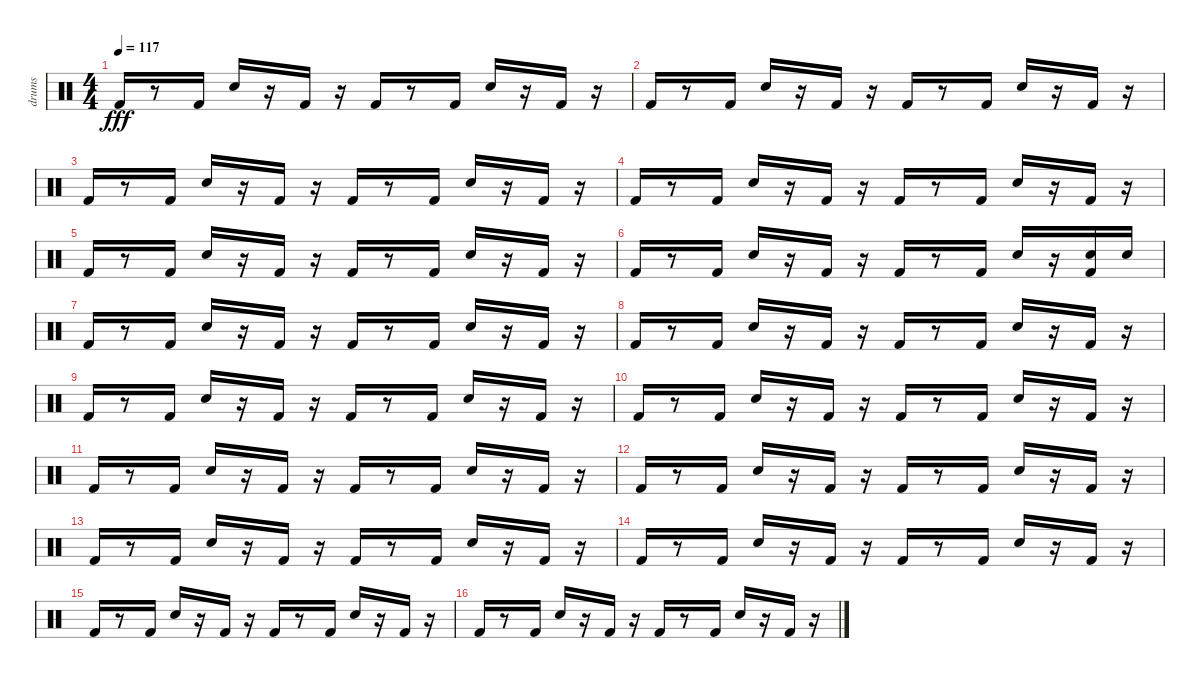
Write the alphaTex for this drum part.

\track ("drums" "drums") {instrument percussion}
\staff {score}
\articulation defaults
\ts (4 4)
\tempo 117
\clef neutral
\ks c "Kick (hit) 2".16{dy fff}
r.8 "Kick (hit) 2".16 "Snare (hit) 2".16 r.16 "Kick (hit) 2".16 r.16 "Kick (hit) 2".16 r.8 "Kick (hit) 2".16 "Snare (hit) 2".16 r.16 "Kick (hit) 2".16 r.16 |
"Kick (hit) 2".16 r.8 "Kick (hit) 2".16 "Snare (hit) 2".16 r.16 "Kick (hit) 2".16 r.16 "Kick (hit) 2".16 r.8 "Kick (hit) 2".16 "Snare (hit) 2".16 r.16 "Kick (hit) 2".16 r.16 |
"Kick (hit) 2".16 r.8 "Kick (hit) 2".16 "Snare (hit) 2".16 r.16 "Kick (hit) 2".16 r.16 "Kick (hit) 2".16 r.8 "Kick (hit) 2".16 "Snare (hit) 2".16 r.16 "Kick (hit) 2".16 r.16 |
"Kick (hit) 2".16 r.8 "Kick (hit) 2".16 "Snare (hit) 2".16 r.16 "Kick (hit) 2".16 r.16 "Kick (hit) 2".16 r.8 "Kick (hit) 2".16 "Snare (hit) 2".16 r.16 "Kick (hit) 2".16 r.16 |
"Kick (hit) 2".16 r.8 "Kick (hit) 2".16 "Snare (hit) 2".16 r.16 "Kick (hit) 2".16 r.16 "Kick (hit) 2".16 r.8 "Kick (hit) 2".16 "Snare (hit) 2".16 r.16 "Kick (hit) 2".16 r.16 |
"Kick (hit) 2".16 r.8 "Kick (hit) 2".16 "Snare (hit) 2".16 r.16 "Kick (hit) 2".16 r.16 "Kick (hit) 2".16 r.8 "Kick (hit) 2".16 "Snare (hit) 2".16 r.16 ("Kick (hit) 2" "Snare (hit) 2").16 "Snare (hit) 2".16 |
"Kick (hit) 2".16 r.8 "Kick (hit) 2".16 "Snare (hit) 2".16 r.16 "Kick (hit) 2".16 r.16 "Kick (hit) 2".16 r.8 "Kick (hit) 2".16 "Snare (hit) 2".16 r.16 "Kick (hit) 2".16 r.16 |
"Kick (hit) 2".16 r.8 "Kick (hit) 2".16 "Snare (hit) 2".16 r.16 "Kick (hit) 2".16 r.16 "Kick (hit) 2".16 r.8 "Kick (hit) 2".16 "Snare (hit) 2".16 r.16 "Kick (hit) 2".16 r.16 |
"Kick (hit) 2".16 r.8 "Kick (hit) 2".16 "Snare (hit) 2".16 r.16 "Kick (hit) 2".16 r.16 "Kick (hit) 2".16 r.8 "Kick (hit) 2".16 "Snare (hit) 2".16 r.16 "Kick (hit) 2".16 r.16 |
"Kick (hit) 2".16 r.8 "Kick (hit) 2".16 "Snare (hit) 2".16 r.16 "Kick (hit) 2".16 r.16 "Kick (hit) 2".16 r.8 "Kick (hit) 2".16 "Snare (hit) 2".16 r.16 "Kick (hit) 2".16 r.16 |
"Kick (hit) 2".16 r.8 "Kick (hit) 2".16 "Snare (hit) 2".16 r.16 "Kick (hit) 2".16 r.16 "Kick (hit) 2".16 r.8 "Kick (hit) 2".16 "Snare (hit) 2".16 r.16 "Kick (hit) 2".16 r.16 |
"Kick (hit) 2".16 r.8 "Kick (hit) 2".16 "Snare (hit) 2".16 r.16 "Kick (hit) 2".16 r.16 "Kick (hit) 2".16 r.8 "Kick (hit) 2".16 "Snare (hit) 2".16 r.16 "Kick (hit) 2".16 r.16 |
"Kick (hit) 2".16 r.8 "Kick (hit) 2".16 "Snare (hit) 2".16 r.16 "Kick (hit) 2".16 r.16 "Kick (hit) 2".16 r.8 "Kick (hit) 2".16 "Snare (hit) 2".16 r.16 "Kick (hit) 2".16 r.16 |
"Kick (hit) 2".16 r.8 "Kick (hit) 2".16 "Snare (hit) 2".16 r.16 "Kick (hit) 2".16 r.16 "Kick (hit) 2".16 r.8 "Kick (hit) 2".16 "Snare (hit) 2".16 r.16 "Kick (hit) 2".16 r.16 |
"Kick (hit) 2".16 r.8 "Kick (hit) 2".16 "Snare (hit) 2".16 r.16 "Kick (hit) 2".16 r.16 "Kick (hit) 2".16 r.8 "Kick (hit) 2".16 "Snare (hit) 2".16 r.16 "Kick (hit) 2".16 r.16 |
"Kick (hit) 2".16 r.8 "Kick (hit) 2".16 "Snare (hit) 2".16 r.16 "Kick (hit) 2".16 r.16 "Kick (hit) 2".16 r.8 "Kick (hit) 2".16 "Snare (hit) 2".16 r.16 "Kick (hit) 2".16 r.16
